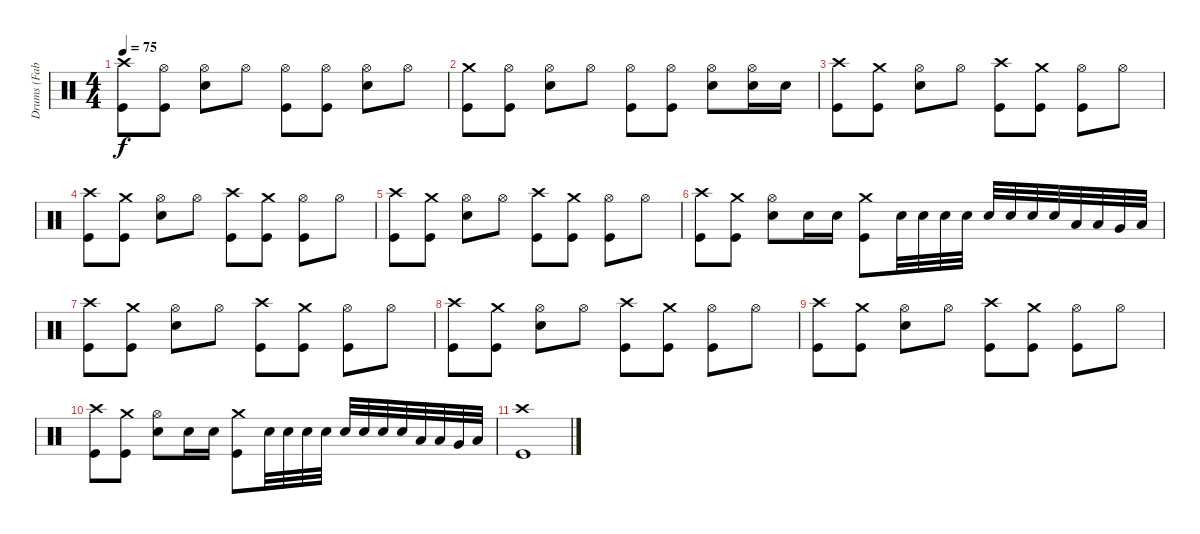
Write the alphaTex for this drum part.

\track ("Drums (Fabien)" "Drums (Fab") {instrument percussion}
\staff {score}
\articulation defaults
\ts (4 4)
\tempo 75
\clef neutral
\ks c
("Crash high (hit)" "Kick (hit)").8{dy f} ("Hi-Hat (open)" "Kick (hit)").8 ("Hi-Hat (open)" "Snare (hit) 2").8 "Hi-Hat (open)".8 ("Hi-Hat (open)" "Kick (hit)").8 ("Hi-Hat (open)" "Kick (hit)").8 ("Hi-Hat (open)" "Snare (hit) 2").8 "Hi-Hat (open)".8 |
("Crash medium (hit)" "Kick (hit)").8 ("Hi-Hat (open)" "Kick (hit)").8 ("Hi-Hat (open)" "Snare (hit) 2").8 "Hi-Hat (open)".8 ("Hi-Hat (open)" "Kick (hit)").8 ("Hi-Hat (open)" "Kick (hit)").8 ("Hi-Hat (open)" "Snare (hit) 2").8 ("Hi-Hat (open)" "Snare (hit) 2").16 "Snare (hit) 2".16 |
("Crash high (hit)" "Kick (hit)").8 ("Crash medium (hit)" "Kick (hit)").8 ("Hi-Hat (open)" "Snare (hit) 2").8 "Hi-Hat (open)".8 ("Crash high (hit)" "Kick (hit)").8 ("Crash medium (hit)" "Kick (hit)").8 ("Hi-Hat (open)" "Kick (hit)").8 "Hi-Hat (open)".8 |
("Crash high (hit)" "Kick (hit)").8 ("Crash medium (hit)" "Kick (hit)").8 ("Hi-Hat (open)" "Snare (hit) 2").8 "Hi-Hat (open)".8 ("Crash high (hit)" "Kick (hit)").8 ("Crash medium (hit)" "Kick (hit)").8 ("Hi-Hat (open)" "Kick (hit)").8 "Hi-Hat (open)".8 |
("Crash high (hit)" "Kick (hit)").8 ("Crash medium (hit)" "Kick (hit)").8 ("Hi-Hat (open)" "Snare (hit) 2").8 "Hi-Hat (open)".8 ("Crash high (hit)" "Kick (hit)").8 ("Crash medium (hit)" "Kick (hit)").8 ("Hi-Hat (open)" "Kick (hit)").8 "Hi-Hat (open)".8 |
("Crash high (hit)" "Kick (hit)").8 ("Crash medium (hit)" "Kick (hit)").8 ("Hi-Hat (open)" "Snare (hit) 2").8 "Snare (hit) 2".16 "Snare (hit) 2".16 ("Crash medium (hit)" "Kick (hit)").8 "Snare (hit) 2".32 "Snare (hit) 2".32 "Snare (hit) 2".32 "Snare (hit) 2".32 "Snare (hit) 2".32 "Snare (hit) 2".32 "Snare (hit) 2".32 "Snare (hit) 2".32 "Low Tom (hit)".32 "Low Tom (hit)".32 "Very Low Tom (hit)".32 "Low Floor Tom (hit)".32 |
("Crash high (hit)" "Kick (hit)").8 ("Crash medium (hit)" "Kick (hit)").8 ("Hi-Hat (open)" "Snare (hit) 2").8 "Hi-Hat (open)".8 ("Crash high (hit)" "Kick (hit)").8 ("Crash medium (hit)" "Kick (hit)").8 ("Hi-Hat (open)" "Kick (hit)").8 "Hi-Hat (open)".8 |
("Crash high (hit)" "Kick (hit)").8 ("Crash medium (hit)" "Kick (hit)").8 ("Hi-Hat (open)" "Snare (hit) 2").8 "Hi-Hat (open)".8 ("Crash high (hit)" "Kick (hit)").8 ("Crash medium (hit)" "Kick (hit)").8 ("Hi-Hat (open)" "Kick (hit)").8 "Hi-Hat (open)".8 |
("Crash high (hit)" "Kick (hit)").8 ("Crash medium (hit)" "Kick (hit)").8 ("Hi-Hat (open)" "Snare (hit) 2").8 "Hi-Hat (open)".8 ("Crash high (hit)" "Kick (hit)").8 ("Crash medium (hit)" "Kick (hit)").8 ("Hi-Hat (open)" "Kick (hit)").8 "Hi-Hat (open)".8 |
("Crash high (hit)" "Kick (hit)").8 ("Crash medium (hit)" "Kick (hit)").8 ("Hi-Hat (open)" "Snare (hit) 2").8 "Snare (hit) 2".16 "Snare (hit) 2".16 ("Crash medium (hit)" "Kick (hit)").8 "Snare (hit) 2".32 "Snare (hit) 2".32 "Snare (hit) 2".32 "Snare (hit) 2".32 "Snare (hit) 2".32 "Snare (hit) 2".32 "Snare (hit) 2".32 "Snare (hit) 2".32 "Low Tom (hit)".32 "Low Tom (hit)".32 "Very Low Tom (hit)".32 "Low Floor Tom (hit)".32 |
("Crash high (hit)" "Kick (hit)").1
